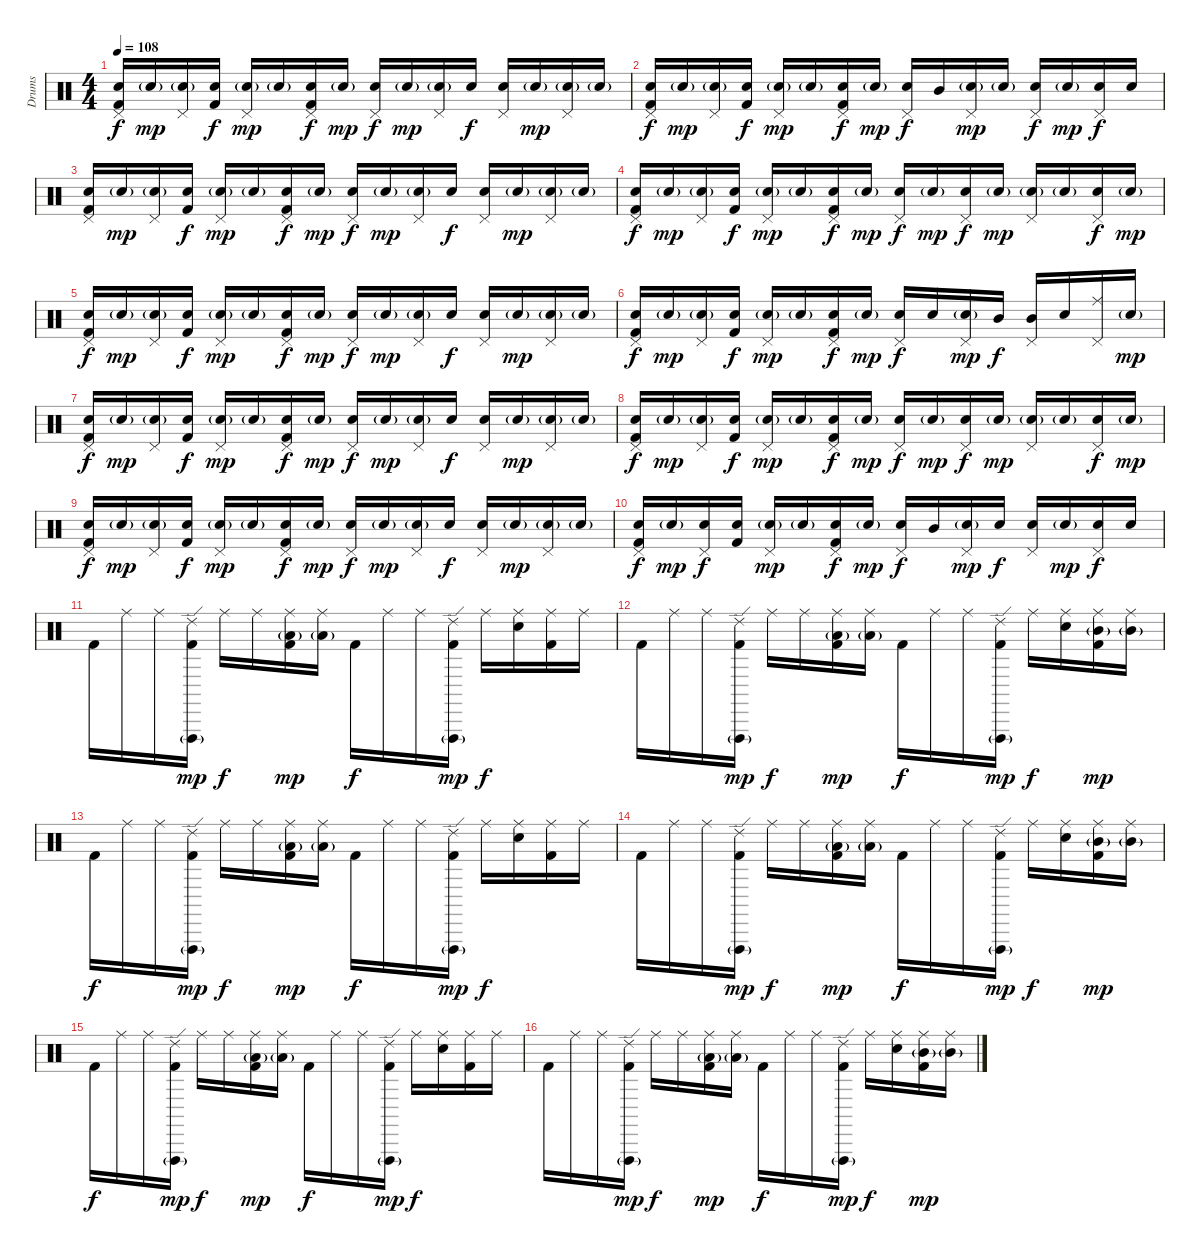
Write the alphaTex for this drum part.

\track ("Drums" "Drums") {instrument percussion}
\staff {score}
\articulation defaults
\ts (4 4)
\tempo 108
\clef neutral
\ks c
("Snare (hit) 2" "Kick (hit) 2" "Pedal Hi-Hat (hit)").16{dy f volume 13} "Snare (hit) 2"{g}.16{dy mp volume 9} ("Snare (hit) 2"{g} "Pedal Hi-Hat (hit)").16 ("Snare (hit) 2" "Kick (hit) 2").16{dy f} ("Snare (hit) 2"{g} "Pedal Hi-Hat (hit)").16{dy mp} "Snare (hit) 2"{g}.16 ("Snare (hit) 2" "Kick (hit) 2" "Pedal Hi-Hat (hit)").16{dy f} "Snare (hit) 2"{g}.16{dy mp} ("Snare (hit) 2" "Pedal Hi-Hat (hit)").16{dy f} "Snare (hit) 2"{g}.16{dy mp} ("Snare (hit) 2"{g} "Pedal Hi-Hat (hit)").16 "Snare (hit) 2".16{dy f volume 13} ("Snare (hit) 2" "Pedal Hi-Hat (hit)").16 "Snare (hit) 2"{g}.16{dy mp volume 8} ("Snare (hit) 2"{g} "Pedal Hi-Hat (hit)").16 "Snare (hit) 2"{g}.16 |
("Snare (hit) 2" "Kick (hit) 2" "Pedal Hi-Hat (hit)").16{dy f volume 13} "Snare (hit) 2"{g}.16{dy mp volume 9} ("Snare (hit) 2"{g} "Pedal Hi-Hat (hit)").16 ("Snare (hit) 2" "Kick (hit) 2").16{dy f} ("Snare (hit) 2"{g} "Pedal Hi-Hat (hit)").16{dy mp} "Snare (hit) 2"{g}.16 ("Snare (hit) 2" "Kick (hit) 2" "Pedal Hi-Hat (hit)").16{dy f} "Snare (hit) 2"{g}.16{dy mp} ("Snare (hit) 2" "Pedal Hi-Hat (hit)").16{dy f volume 13} "Mid Tom (hit)".16 ("Snare (hit) 2"{g} "Pedal Hi-Hat (hit)").16{dy mp} "Snare (hit) 2"{g}.16 ("Snare (hit) 2" "Pedal Hi-Hat (hit)").16{dy f volume 16} "Snare (hit) 2"{g}.16{dy mp volume 8} ("Snare (hit) 2" "Pedal Hi-Hat (hit)").16{dy f volume 16} "Snare (hit) 2".16{volume 16} |
("Snare (hit) 2" "Kick (hit) 2" "Pedal Hi-Hat (hit)").16{volume 13} "Snare (hit) 2"{g}.16{dy mp volume 9} ("Snare (hit) 2"{g} "Pedal Hi-Hat (hit)").16 ("Snare (hit) 2" "Kick (hit) 2").16{dy f} ("Snare (hit) 2"{g} "Pedal Hi-Hat (hit)").16{dy mp} "Snare (hit) 2"{g}.16 ("Snare (hit) 2" "Kick (hit) 2" "Pedal Hi-Hat (hit)").16{dy f} "Snare (hit) 2"{g}.16{dy mp} ("Snare (hit) 2" "Pedal Hi-Hat (hit)").16{dy f} "Snare (hit) 2"{g}.16{dy mp} ("Snare (hit) 2"{g} "Pedal Hi-Hat (hit)").16 "Snare (hit) 2".16{dy f volume 13} ("Snare (hit) 2" "Pedal Hi-Hat (hit)").16 "Snare (hit) 2"{g}.16{dy mp volume 8} ("Snare (hit) 2"{g} "Pedal Hi-Hat (hit)").16 "Snare (hit) 2"{g}.16 |
("Snare (hit) 2" "Kick (hit) 2" "Pedal Hi-Hat (hit)").16{dy f volume 13} "Snare (hit) 2"{g}.16{dy mp volume 9} ("Snare (hit) 2"{g} "Pedal Hi-Hat (hit)").16 ("Snare (hit) 2" "Kick (hit) 2").16{dy f} ("Snare (hit) 2"{g} "Pedal Hi-Hat (hit)").16{dy mp} "Snare (hit) 2"{g}.16 ("Snare (hit) 2" "Kick (hit) 2" "Pedal Hi-Hat (hit)").16{dy f} "Snare (hit) 2"{g}.16{dy mp} ("Snare (hit) 2" "Pedal Hi-Hat (hit)").16{dy f} "Snare (hit) 2"{g}.16{dy mp} ("Snare (hit) 2" "Pedal Hi-Hat (hit)").16{dy f volume 16} "Snare (hit) 2"{g}.16{dy mp volume 13} ("Snare (hit) 2"{g} "Pedal Hi-Hat (hit)").16 "Snare (hit) 2"{g}.16{volume 10} ("Snare (hit) 2" "Pedal Hi-Hat (hit)").16{dy f volume 16} "Snare (hit) 2"{g}.16{dy mp volume 10} |
("Snare (hit) 2" "Kick (hit) 2" "Pedal Hi-Hat (hit)").16{dy f volume 13} "Snare (hit) 2"{g}.16{dy mp volume 9} ("Snare (hit) 2"{g} "Pedal Hi-Hat (hit)").16 ("Snare (hit) 2" "Kick (hit) 2").16{dy f} ("Snare (hit) 2"{g} "Pedal Hi-Hat (hit)").16{dy mp} "Snare (hit) 2"{g}.16 ("Snare (hit) 2" "Kick (hit) 2" "Pedal Hi-Hat (hit)").16{dy f} "Snare (hit) 2"{g}.16{dy mp} ("Snare (hit) 2" "Pedal Hi-Hat (hit)").16{dy f} "Snare (hit) 2"{g}.16{dy mp} ("Snare (hit) 2"{g} "Pedal Hi-Hat (hit)").16 "Snare (hit) 2".16{dy f volume 13} ("Snare (hit) 2" "Pedal Hi-Hat (hit)").16 "Snare (hit) 2"{g}.16{dy mp volume 8} ("Snare (hit) 2"{g} "Pedal Hi-Hat (hit)").16 "Snare (hit) 2"{g}.16 |
("Snare (hit) 2" "Kick (hit) 2" "Pedal Hi-Hat (hit)").16{dy f volume 13} "Snare (hit) 2"{g}.16{dy mp volume 9} ("Snare (hit) 2"{g} "Pedal Hi-Hat (hit)").16 ("Snare (hit) 2" "Kick (hit) 2").16{dy f} ("Snare (hit) 2"{g} "Pedal Hi-Hat (hit)").16{dy mp} "Snare (hit) 2"{g}.16 ("Snare (hit) 2" "Kick (hit) 2" "Pedal Hi-Hat (hit)").16{dy f} "Snare (hit) 2"{g}.16{dy mp} ("Snare (hit) 2" "Pedal Hi-Hat (hit)").16{dy f volume 13} "Snare (hit) 2".16 ("Snare (hit) 2"{g} "Pedal Hi-Hat (hit)").16{dy mp} "Mid Tom (hit)".16{dy f volume 16} ("Mid Tom (hit)" "Pedal Hi-Hat (hit)").16{volume 16} "Snare (hit) 2".16{volume 16} ("Ride (middle)" "Pedal Hi-Hat (hit)").16{volume 16} "Snare (hit) 2"{g}.16{dy mp volume 16} |
("Snare (hit) 2" "Kick (hit) 2" "Pedal Hi-Hat (hit)").16{dy f volume 13} "Snare (hit) 2"{g}.16{dy mp volume 9} ("Snare (hit) 2"{g} "Pedal Hi-Hat (hit)").16 ("Snare (hit) 2" "Kick (hit) 2").16{dy f} ("Snare (hit) 2"{g} "Pedal Hi-Hat (hit)").16{dy mp} "Snare (hit) 2"{g}.16 ("Snare (hit) 2" "Kick (hit) 2" "Pedal Hi-Hat (hit)").16{dy f} "Snare (hit) 2"{g}.16{dy mp} ("Snare (hit) 2" "Pedal Hi-Hat (hit)").16{dy f} "Snare (hit) 2"{g}.16{dy mp} ("Snare (hit) 2"{g} "Pedal Hi-Hat (hit)").16 "Snare (hit) 2".16{dy f volume 13} ("Snare (hit) 2" "Pedal Hi-Hat (hit)").16 "Snare (hit) 2"{g}.16{dy mp volume 8} ("Snare (hit) 2"{g} "Pedal Hi-Hat (hit)").16 "Snare (hit) 2"{g}.16 |
("Snare (hit) 2" "Kick (hit) 2" "Pedal Hi-Hat (hit)").16{dy f volume 13} "Snare (hit) 2"{g}.16{dy mp volume 9} ("Snare (hit) 2"{g} "Pedal Hi-Hat (hit)").16 ("Snare (hit) 2" "Kick (hit) 2").16{dy f} ("Snare (hit) 2"{g} "Pedal Hi-Hat (hit)").16{dy mp} "Snare (hit) 2"{g}.16 ("Snare (hit) 2" "Kick (hit) 2" "Pedal Hi-Hat (hit)").16{dy f} "Snare (hit) 2"{g}.16{dy mp} ("Snare (hit) 2" "Pedal Hi-Hat (hit)").16{dy f} "Snare (hit) 2"{g}.16{dy mp} ("Snare (hit) 2" "Pedal Hi-Hat (hit)").16{dy f volume 16} "Snare (hit) 2"{g}.16{dy mp volume 10} ("Snare (hit) 2"{g} "Pedal Hi-Hat (hit)").16{volume 10} "Snare (hit) 2"{g}.16{volume 8} ("Snare (hit) 2" "Pedal Hi-Hat (hit)").16{dy f volume 16} "Snare (hit) 2"{g}.16{dy mp volume 10} |
("Snare (hit) 2" "Kick (hit) 2" "Pedal Hi-Hat (hit)").16{dy f volume 13} "Snare (hit) 2"{g}.16{dy mp volume 9} ("Snare (hit) 2"{g} "Pedal Hi-Hat (hit)").16 ("Snare (hit) 2" "Kick (hit) 2").16{dy f} ("Snare (hit) 2"{g} "Pedal Hi-Hat (hit)").16{dy mp} "Snare (hit) 2"{g}.16 ("Snare (hit) 2" "Kick (hit) 2" "Pedal Hi-Hat (hit)").16{dy f} "Snare (hit) 2"{g}.16{dy mp} ("Snare (hit) 2" "Pedal Hi-Hat (hit)").16{dy f} "Snare (hit) 2"{g}.16{dy mp} ("Snare (hit) 2"{g} "Pedal Hi-Hat (hit)").16 "Snare (hit) 2".16{dy f volume 13} ("Snare (hit) 2" "Pedal Hi-Hat (hit)").16 "Snare (hit) 2"{g}.16{dy mp volume 8} ("Snare (hit) 2"{g} "Pedal Hi-Hat (hit)").16{volume 14} "Snare (hit) 2"{g}.16 |
("Snare (hit) 2" "Kick (hit) 2" "Pedal Hi-Hat (hit)").16{dy f volume 13} "Snare (hit) 2"{g}.16{dy mp} ("Snare (hit) 2" "Pedal Hi-Hat (hit)").16{dy f} ("Snare (hit) 2" "Kick (hit) 2").16 ("Snare (hit) 2"{g} "Pedal Hi-Hat (hit)").16{dy mp} "Snare (hit) 2"{g}.16 ("Snare (hit) 2" "Kick (hit) 2" "Pedal Hi-Hat (hit)").16{dy f} "Snare (hit) 2"{g}.16{dy mp} ("Snare (hit) 2" "Pedal Hi-Hat (hit)").16{dy f} "Mid Tom (hit)".16{volume 16} ("Snare (hit) 2"{g} "Pedal Hi-Hat (hit)").16{dy mp} "Snare (hit) 2".16{dy f} ("Snare (hit) 2" "Pedal Hi-Hat (hit)").16 "Snare (hit) 2"{g}.16{dy mp volume 13} ("Snare (hit) 2" "Pedal Hi-Hat (hit)").16{dy f volume 16} "Snare (hit) 2".16{volume 16} |
"Kick (hit) 2".16 "Ride (middle)".16 "Ride (middle)".16 ("Vibraslap (hit)"{g} "Ride (edge) 2" "Kick (hit) 2").16{dy mp} "Ride (middle)".16{dy f} "Ride (middle)".16 ("Ride (middle)" "Kick (hit) 2" "Low Tom (hit)"{g}).16{dy mp} ("Ride (middle)" "Low Tom (hit)"{g}).16 "Kick (hit) 2".16{dy f} "Ride (middle)".16 "Ride (middle)".16 ("Vibraslap (hit)"{g} "Ride (edge) 2" "Kick (hit) 2").16{dy mp} "Ride (middle)".16{dy f} ("Ride (middle)" "Snare (hit) 2").16 ("Ride (middle)" "Kick (hit) 2").16 "Ride (middle)".16 |
"Kick (hit) 2".16 "Ride (middle)".16 "Ride (middle)".16 ("Vibraslap (hit)"{g} "Ride (edge) 2" "Kick (hit) 2").16{dy mp} "Ride (middle)".16{dy f} "Ride (middle)".16 ("Ride (middle)" "Kick (hit) 2" "Low Tom (hit)"{g}).16{dy mp} ("Ride (middle)" "Low Tom (hit)"{g}).16 "Kick (hit) 2".16{dy f} "Ride (middle)".16 "Ride (middle)".16 ("Vibraslap (hit)"{g} "Ride (edge) 2" "Kick (hit) 2").16{dy mp} "Ride (middle)".16{dy f} ("Ride (middle)" "Snare (hit) 2").16 ("Ride (middle)" "Mid Tom (hit)"{g} "Kick (hit) 2").16{dy mp} ("Ride (middle)" "Mid Tom (hit)"{g}).16 |
"Kick (hit) 2".16{dy f} "Ride (middle)".16 "Ride (middle)".16 ("Vibraslap (hit)"{g} "Ride (edge) 2" "Kick (hit) 2").16{dy mp} "Ride (middle)".16{dy f} "Ride (middle)".16 ("Ride (middle)" "Kick (hit) 2" "Low Tom (hit)"{g}).16{dy mp} ("Ride (middle)" "Low Tom (hit)"{g}).16 "Kick (hit) 2".16{dy f} "Ride (middle)".16 "Ride (middle)".16 ("Vibraslap (hit)"{g} "Ride (edge) 2" "Kick (hit) 2").16{dy mp} "Ride (middle)".16{dy f} ("Ride (middle)" "Snare (hit) 2").16 ("Ride (middle)" "Kick (hit) 2").16 "Ride (middle)".16 |
"Kick (hit) 2".16 "Ride (middle)".16 "Ride (middle)".16 ("Vibraslap (hit)"{g} "Ride (edge) 2" "Kick (hit) 2").16{dy mp} "Ride (middle)".16{dy f} "Ride (middle)".16 ("Ride (middle)" "Kick (hit) 2" "Low Tom (hit)"{g}).16{dy mp} ("Ride (middle)" "Low Tom (hit)"{g}).16 "Kick (hit) 2".16{dy f} "Ride (middle)".16 "Ride (middle)".16 ("Vibraslap (hit)"{g} "Ride (edge) 2" "Kick (hit) 2").16{dy mp} "Ride (middle)".16{dy f} ("Ride (middle)" "Snare (hit) 2").16 ("Ride (middle)" "Mid Tom (hit)"{g} "Kick (hit) 2").16{dy mp} ("Ride (middle)" "Mid Tom (hit)"{g}).16 |
"Kick (hit) 2".16{dy f} "Ride (middle)".16 "Ride (middle)".16 ("Vibraslap (hit)"{g} "Ride (edge) 2" "Kick (hit) 2").16{dy mp} "Ride (middle)".16{dy f} "Ride (middle)".16 ("Ride (middle)" "Kick (hit) 2" "Low Tom (hit)"{g}).16{dy mp} ("Ride (middle)" "Low Tom (hit)"{g}).16 "Kick (hit) 2".16{dy f} "Ride (middle)".16 "Ride (middle)".16 ("Vibraslap (hit)"{g} "Ride (edge) 2" "Kick (hit) 2").16{dy mp} "Ride (middle)".16{dy f} ("Ride (middle)" "Snare (hit) 2").16 ("Ride (middle)" "Kick (hit) 2").16 "Ride (middle)".16 |
"Kick (hit) 2".16 "Ride (middle)".16 "Ride (middle)".16 ("Vibraslap (hit)"{g} "Ride (edge) 2" "Kick (hit) 2").16{dy mp} "Ride (middle)".16{dy f} "Ride (middle)".16 ("Ride (middle)" "Kick (hit) 2" "Low Tom (hit)"{g}).16{dy mp} ("Ride (middle)" "Low Tom (hit)"{g}).16 "Kick (hit) 2".16{dy f} "Ride (middle)".16 "Ride (middle)".16 ("Vibraslap (hit)"{g} "Ride (edge) 2" "Kick (hit) 2").16{dy mp} "Ride (middle)".16{dy f} ("Ride (middle)" "Snare (hit) 2").16 ("Ride (middle)" "Mid Tom (hit)"{g} "Kick (hit) 2").16{dy mp} ("Ride (middle)" "Mid Tom (hit)"{g}).16
